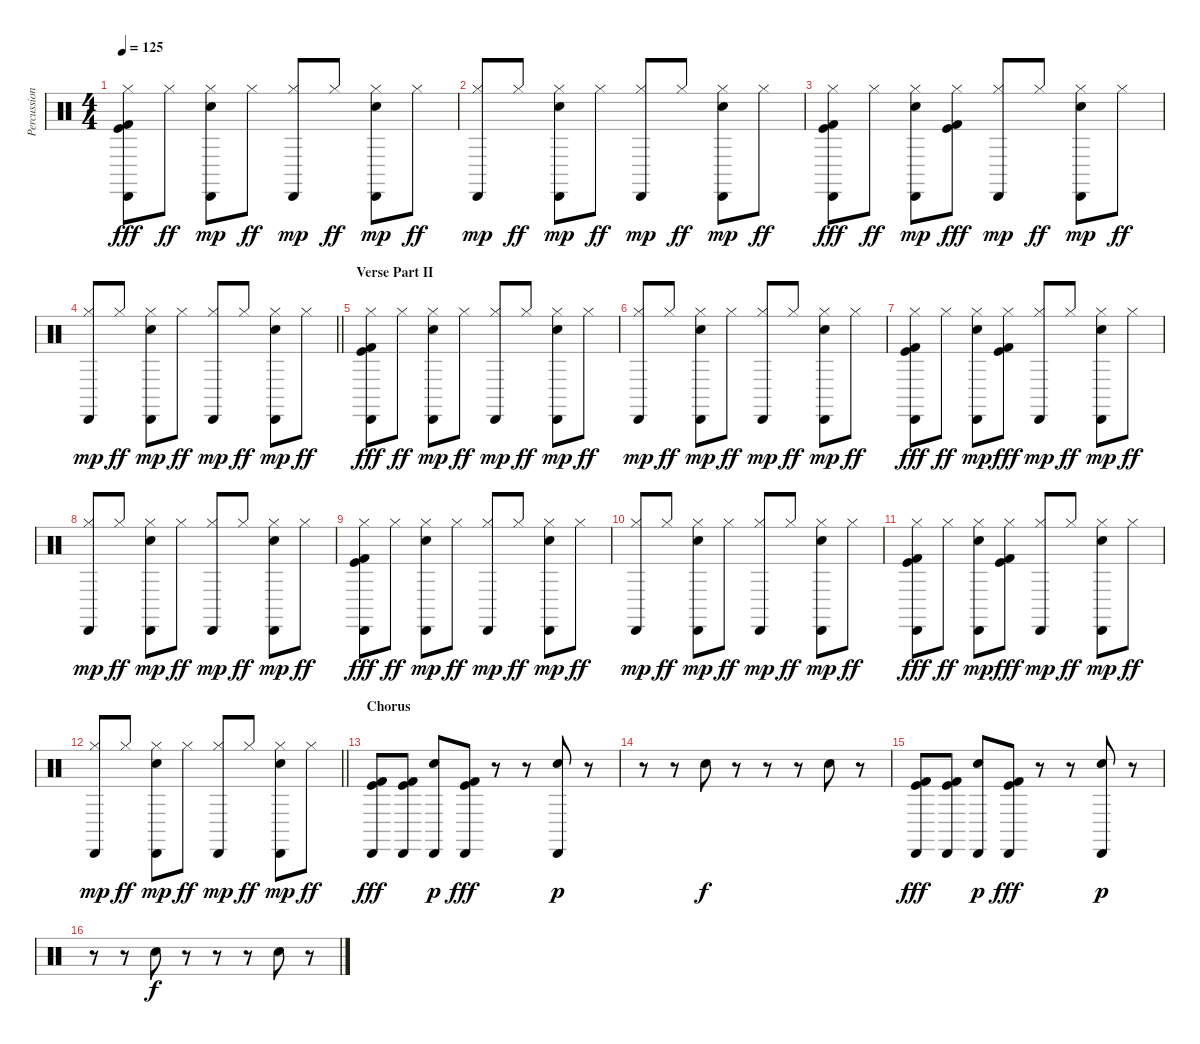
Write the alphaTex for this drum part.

\track ("Percussion" "Percussion") {instrument percussion}
\staff {score}
\articulation defaults
\ts (4 4)
\tempo 125
\clef neutral
\ks c
("Hi-Hat (closed)" "Cabasa (hit)" "Kick (hit)" "Kick (hit) 2").8{dy fff} "Hi-Hat (closed)".8{dy ff} ("Hi-Hat (closed)" "Cabasa (hit)" "Electric Snare (hit)").8{dy mp} "Hi-Hat (closed)".8{dy ff} ("Hi-Hat (closed)" "Cabasa (hit)").8{dy mp} "Hi-Hat (closed)".8{dy ff} ("Hi-Hat (closed)" "Cabasa (hit)" "Electric Snare (hit)").8{dy mp} "Hi-Hat (closed)".8{dy ff} |
("Hi-Hat (closed)" "Cabasa (hit)").8{dy mp} "Hi-Hat (closed)".8{dy ff} ("Hi-Hat (closed)" "Cabasa (hit)" "Electric Snare (hit)").8{dy mp} "Hi-Hat (closed)".8{dy ff} ("Hi-Hat (closed)" "Cabasa (hit)").8{dy mp} "Hi-Hat (closed)".8{dy ff} ("Hi-Hat (closed)" "Cabasa (hit)" "Electric Snare (hit)").8{dy mp} "Hi-Hat (closed)".8{dy ff} |
("Hi-Hat (closed)" "Cabasa (hit)" "Kick (hit)" "Kick (hit) 2").8{dy fff} "Hi-Hat (closed)".8{dy ff} ("Hi-Hat (closed)" "Cabasa (hit)" "Electric Snare (hit)").8{dy mp} ("Hi-Hat (closed)" "Kick (hit)" "Kick (hit) 2").8{dy fff} ("Hi-Hat (closed)" "Cabasa (hit)").8{dy mp} "Hi-Hat (closed)".8{dy ff} ("Hi-Hat (closed)" "Cabasa (hit)" "Electric Snare (hit)").8{dy mp} "Hi-Hat (closed)".8{dy ff} |
\barLineRight lightlight
("Hi-Hat (closed)" "Cabasa (hit)").8{dy mp} "Hi-Hat (closed)".8{dy ff} ("Hi-Hat (closed)" "Cabasa (hit)" "Electric Snare (hit)").8{dy mp} "Hi-Hat (closed)".8{dy ff} ("Hi-Hat (closed)" "Cabasa (hit)").8{dy mp} "Hi-Hat (closed)".8{dy ff} ("Hi-Hat (closed)" "Cabasa (hit)" "Electric Snare (hit)").8{dy mp} "Hi-Hat (closed)".8{dy ff} |
\section ("" "Verse Part II")
("Hi-Hat (closed)" "Cabasa (hit)" "Kick (hit)" "Kick (hit) 2").8{dy fff} "Hi-Hat (closed)".8{dy ff} ("Hi-Hat (closed)" "Cabasa (hit)" "Electric Snare (hit)").8{dy mp} "Hi-Hat (closed)".8{dy ff} ("Hi-Hat (closed)" "Cabasa (hit)").8{dy mp} "Hi-Hat (closed)".8{dy ff} ("Hi-Hat (closed)" "Cabasa (hit)" "Electric Snare (hit)").8{dy mp} "Hi-Hat (closed)".8{dy ff} |
("Hi-Hat (closed)" "Cabasa (hit)").8{dy mp} "Hi-Hat (closed)".8{dy ff} ("Hi-Hat (closed)" "Cabasa (hit)" "Electric Snare (hit)").8{dy mp} "Hi-Hat (closed)".8{dy ff} ("Hi-Hat (closed)" "Cabasa (hit)").8{dy mp} "Hi-Hat (closed)".8{dy ff} ("Hi-Hat (closed)" "Cabasa (hit)" "Electric Snare (hit)").8{dy mp} "Hi-Hat (closed)".8{dy ff} |
("Hi-Hat (closed)" "Cabasa (hit)" "Kick (hit)" "Kick (hit) 2").8{dy fff} "Hi-Hat (closed)".8{dy ff} ("Hi-Hat (closed)" "Cabasa (hit)" "Electric Snare (hit)").8{dy mp} ("Hi-Hat (closed)" "Kick (hit)" "Kick (hit) 2").8{dy fff} ("Hi-Hat (closed)" "Cabasa (hit)").8{dy mp} "Hi-Hat (closed)".8{dy ff} ("Hi-Hat (closed)" "Cabasa (hit)" "Electric Snare (hit)").8{dy mp} "Hi-Hat (closed)".8{dy ff} |
("Hi-Hat (closed)" "Cabasa (hit)").8{dy mp} "Hi-Hat (closed)".8{dy ff} ("Hi-Hat (closed)" "Cabasa (hit)" "Electric Snare (hit)").8{dy mp} "Hi-Hat (closed)".8{dy ff} ("Hi-Hat (closed)" "Cabasa (hit)").8{dy mp} "Hi-Hat (closed)".8{dy ff} ("Hi-Hat (closed)" "Cabasa (hit)" "Electric Snare (hit)").8{dy mp} "Hi-Hat (closed)".8{dy ff} |
("Hi-Hat (closed)" "Cabasa (hit)" "Kick (hit)" "Kick (hit) 2").8{dy fff} "Hi-Hat (closed)".8{dy ff} ("Hi-Hat (closed)" "Cabasa (hit)" "Electric Snare (hit)").8{dy mp} "Hi-Hat (closed)".8{dy ff} ("Hi-Hat (closed)" "Cabasa (hit)").8{dy mp} "Hi-Hat (closed)".8{dy ff} ("Hi-Hat (closed)" "Cabasa (hit)" "Electric Snare (hit)").8{dy mp} "Hi-Hat (closed)".8{dy ff} |
("Hi-Hat (closed)" "Cabasa (hit)").8{dy mp} "Hi-Hat (closed)".8{dy ff} ("Hi-Hat (closed)" "Cabasa (hit)" "Electric Snare (hit)").8{dy mp} "Hi-Hat (closed)".8{dy ff} ("Hi-Hat (closed)" "Cabasa (hit)").8{dy mp} "Hi-Hat (closed)".8{dy ff} ("Hi-Hat (closed)" "Cabasa (hit)" "Electric Snare (hit)").8{dy mp} "Hi-Hat (closed)".8{dy ff} |
("Hi-Hat (closed)" "Cabasa (hit)" "Kick (hit)" "Kick (hit) 2").8{dy fff} "Hi-Hat (closed)".8{dy ff} ("Hi-Hat (closed)" "Cabasa (hit)" "Electric Snare (hit)").8{dy mp} ("Hi-Hat (closed)" "Kick (hit)" "Kick (hit) 2").8{dy fff} ("Hi-Hat (closed)" "Cabasa (hit)").8{dy mp} "Hi-Hat (closed)".8{dy ff} ("Hi-Hat (closed)" "Cabasa (hit)" "Electric Snare (hit)").8{dy mp} "Hi-Hat (closed)".8{dy ff} |
\barLineRight lightlight
("Hi-Hat (closed)" "Cabasa (hit)").8{dy mp} "Hi-Hat (closed)".8{dy ff} ("Hi-Hat (closed)" "Cabasa (hit)" "Electric Snare (hit)").8{dy mp} "Hi-Hat (closed)".8{dy ff} ("Hi-Hat (closed)" "Cabasa (hit)").8{dy mp} "Hi-Hat (closed)".8{dy ff} ("Hi-Hat (closed)" "Cabasa (hit)" "Electric Snare (hit)").8{dy mp} "Hi-Hat (closed)".8{dy ff} |
\section ("" "Chorus")
("Cabasa (hit)" "Kick (hit)" "Kick (hit) 2").8{dy fff} ("Cabasa (hit)" "Kick (hit)" "Kick (hit) 2").8 ("Cabasa (hit)" "Electric Snare (hit)").8{dy p} ("Cabasa (hit)" "Kick (hit)" "Kick (hit) 2").8{dy fff} r.8 r.8 ("Cabasa (hit)" "Electric Snare (hit)").8{dy p} r.8 |
r.8 r.8 "Electric Snare (hit)".8{dy f} r.8 r.8 r.8 "Electric Snare (hit)".8 r.8 |
("Cabasa (hit)" "Kick (hit)" "Kick (hit) 2").8{dy fff} ("Cabasa (hit)" "Kick (hit)" "Kick (hit) 2").8 ("Cabasa (hit)" "Electric Snare (hit)").8{dy p} ("Cabasa (hit)" "Kick (hit)" "Kick (hit) 2").8{dy fff} r.8 r.8 ("Cabasa (hit)" "Electric Snare (hit)").8{dy p} r.8 |
r.8 r.8 "Electric Snare (hit)".8{dy f} r.8 r.8 r.8 "Electric Snare (hit)".8 r.8
